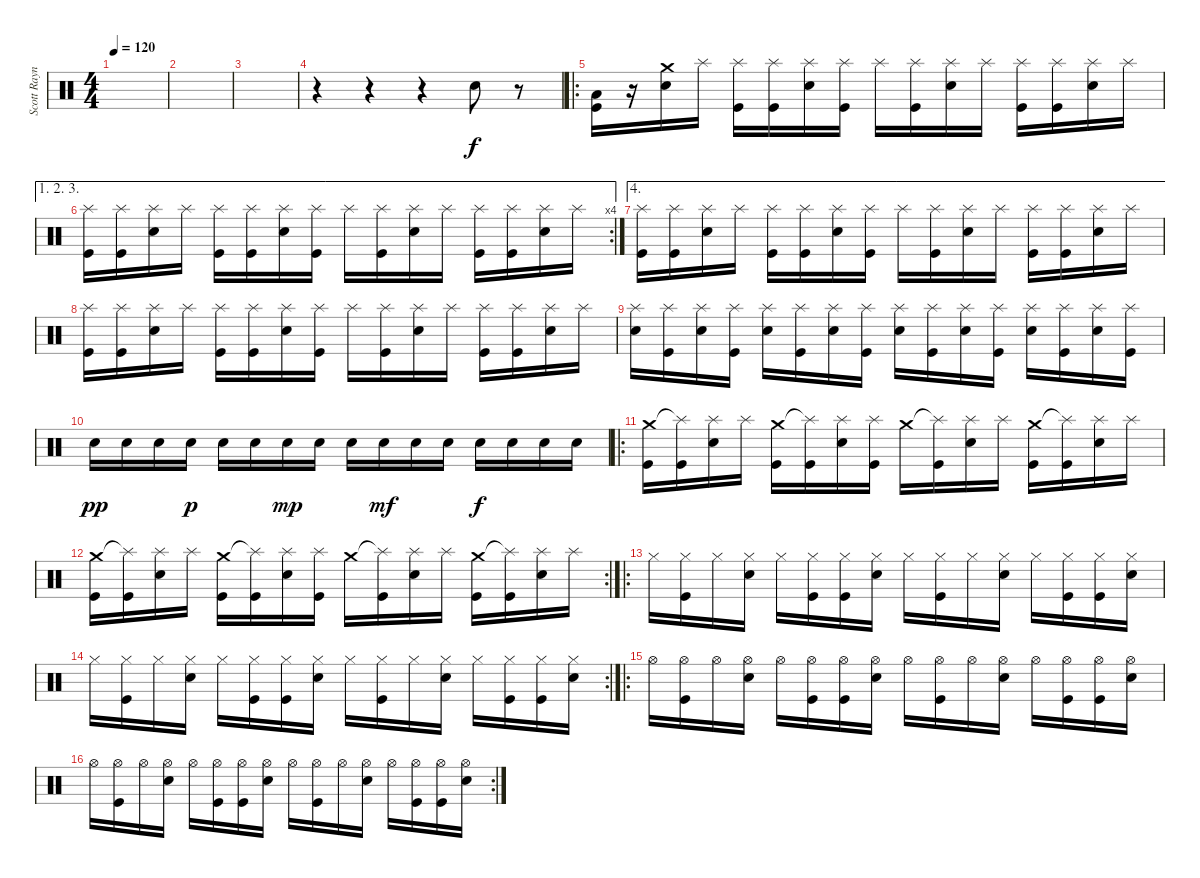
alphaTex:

\track ("Scott Raynor" "Scott Rayn") {instrument percussion}
\staff {score}
\articulation defaults
\ts (4 4)
\tempo 120
\clef neutral
\ks c
|
|
|
r.4 r.4 r.4 "Snare (hit) 2".8 r.8 |
\ro
("Low Tom (hit)" "Kick (hit)").16 r.16 ("Crash medium (hit)" "Snare (hit) 2").16 "Splash (hit)".16 ("Splash (hit)" "Kick (hit)").16 ("Splash (hit)" "Kick (hit)").16 ("Splash (hit)" "Snare (hit) 2").16 ("Splash (hit)" "Kick (hit)").16 "Splash (hit)".16 ("Splash (hit)" "Kick (hit)").16 ("Splash (hit)" "Snare (hit) 2").16 "Splash (hit)".16 ("Splash (hit)" "Kick (hit)").16 ("Splash (hit)" "Kick (hit)").16 ("Splash (hit)" "Snare (hit) 2").16 "Splash (hit)".16 |
\ae (1 2 3)
\rc 4
("Splash (hit)" "Kick (hit)").16 ("Splash (hit)" "Kick (hit)").16 ("Splash (hit)" "Snare (hit) 2").16 "Splash (hit)".16 ("Splash (hit)" "Kick (hit)").16 ("Splash (hit)" "Kick (hit)").16 ("Splash (hit)" "Snare (hit) 2").16 ("Splash (hit)" "Kick (hit)").16 "Splash (hit)".16 ("Splash (hit)" "Kick (hit)").16 ("Splash (hit)" "Snare (hit) 2").16 "Splash (hit)".16 ("Splash (hit)" "Kick (hit)").16 ("Splash (hit)" "Kick (hit)").16 ("Splash (hit)" "Snare (hit) 2").16 "Splash (hit)".16 |
\ae 4
("Splash (hit)" "Kick (hit)").16 ("Splash (hit)" "Kick (hit)").16 ("Splash (hit)" "Snare (hit) 2").16 "Splash (hit)".16 ("Splash (hit)" "Kick (hit)").16 ("Splash (hit)" "Kick (hit)").16 ("Splash (hit)" "Snare (hit) 2").16 ("Splash (hit)" "Kick (hit)").16 "Splash (hit)".16 ("Splash (hit)" "Kick (hit)").16 ("Splash (hit)" "Snare (hit) 2").16 "Splash (hit)".16 ("Splash (hit)" "Kick (hit)").16 ("Splash (hit)" "Kick (hit)").16 ("Splash (hit)" "Snare (hit) 2").16 "Splash (hit)".16 |
("Splash (hit)" "Kick (hit)").16 ("Splash (hit)" "Kick (hit)").16 ("Splash (hit)" "Snare (hit) 2").16 "Splash (hit)".16 ("Splash (hit)" "Kick (hit)").16 ("Splash (hit)" "Kick (hit)").16 ("Splash (hit)" "Snare (hit) 2").16 ("Splash (hit)" "Kick (hit)").16 "Splash (hit)".16 ("Splash (hit)" "Kick (hit)").16 ("Splash (hit)" "Snare (hit) 2").16 "Splash (hit)".16 ("Splash (hit)" "Kick (hit)").16 ("Splash (hit)" "Kick (hit)").16 ("Splash (hit)" "Snare (hit) 2").16 "Splash (hit)".16 |
("Splash (hit)" "Snare (hit) 2").16 ("Splash (hit)" "Kick (hit)").16 ("Splash (hit)" "Snare (hit) 2").16 ("Splash (hit)" "Kick (hit)").16 ("Splash (hit)" "Snare (hit) 2").16 ("Splash (hit)" "Kick (hit)").16 ("Splash (hit)" "Snare (hit) 2").16 ("Splash (hit)" "Kick (hit)").16 ("Splash (hit)" "Snare (hit) 2").16 ("Splash (hit)" "Kick (hit)").16 ("Splash (hit)" "Snare (hit) 2").16 ("Splash (hit)" "Kick (hit)").16 ("Splash (hit)" "Snare (hit) 2").16 ("Splash (hit)" "Kick (hit)").16 ("Splash (hit)" "Snare (hit) 2").16 ("Splash (hit)" "Kick (hit)").16 |
"Snare (hit) 2".16{dy pp} "Snare (hit) 2".16 "Snare (hit) 2".16 "Snare (hit) 2".16{dy p} "Snare (hit) 2".16 "Snare (hit) 2".16 "Snare (hit) 2".16{dy mp} "Snare (hit) 2".16 "Snare (hit) 2".16 "Snare (hit) 2".16{dy mf} "Snare (hit) 2".16 "Snare (hit) 2".16 "Snare (hit) 2".16{dy f} "Snare (hit) 2".16 "Snare (hit) 2".16 "Snare (hit) 2".16 |
\ro
("Crash medium (hit)" "Kick (hit)").16 ("Splash (hit)"{t} "Kick (hit)").16 ("Splash (hit)" "Snare (hit) 2").16 "Splash (hit)".16 ("Crash medium (hit)" "Kick (hit)").16 ("Splash (hit)"{t} "Kick (hit)").16 ("Splash (hit)" "Snare (hit) 2").16 ("Splash (hit)" "Kick (hit)").16 "Crash medium (hit)".16 ("Splash (hit)"{t} "Kick (hit)").16 ("Splash (hit)" "Snare (hit) 2").16 "Splash (hit)".16 ("Crash medium (hit)" "Kick (hit)").16 ("Splash (hit)"{t} "Kick (hit)").16 ("Splash (hit)" "Snare (hit) 2").16 "Splash (hit)".16 |
\rc 2
("Crash medium (hit)" "Kick (hit)").16 ("Splash (hit)"{t} "Kick (hit)").16 ("Splash (hit)" "Snare (hit) 2").16 "Splash (hit)".16 ("Crash medium (hit)" "Kick (hit)").16 ("Splash (hit)"{t} "Kick (hit)").16 ("Splash (hit)" "Snare (hit) 2").16 ("Splash (hit)" "Kick (hit)").16 "Crash medium (hit)".16 ("Splash (hit)"{t} "Kick (hit)").16 ("Splash (hit)" "Snare (hit) 2").16 "Splash (hit)".16 ("Crash medium (hit)" "Kick (hit)").16 ("Splash (hit)"{t} "Kick (hit)").16 ("Splash (hit)" "Snare (hit) 2").16 "Splash (hit)".16 |
\ro "Hi-Hat (closed)".16
("Hi-Hat (closed)" "Kick (hit)").16 "Hi-Hat (closed)".16 ("Hi-Hat (closed)" "Snare (hit) 2").16 "Hi-Hat (closed)".16 ("Hi-Hat (closed)" "Kick (hit)").16 ("Hi-Hat (closed)" "Kick (hit)").16 ("Hi-Hat (closed)" "Snare (hit) 2").16 "Hi-Hat (closed)".16 ("Hi-Hat (closed)" "Kick (hit)").16 "Hi-Hat (closed)".16 ("Hi-Hat (closed)" "Snare (hit) 2").16 "Hi-Hat (closed)".16 ("Hi-Hat (closed)" "Kick (hit)").16 ("Hi-Hat (closed)" "Kick (hit)").16 ("Hi-Hat (closed)" "Snare (hit) 2").16 |
\rc 2 "Hi-Hat (closed)".16
("Hi-Hat (closed)" "Kick (hit)").16 "Hi-Hat (closed)".16 ("Hi-Hat (closed)" "Snare (hit) 2").16 "Hi-Hat (closed)".16 ("Hi-Hat (closed)" "Kick (hit)").16 ("Hi-Hat (closed)" "Kick (hit)").16 ("Hi-Hat (closed)" "Snare (hit) 2").16 "Hi-Hat (closed)".16 ("Hi-Hat (closed)" "Kick (hit)").16 "Hi-Hat (closed)".16 ("Hi-Hat (closed)" "Snare (hit) 2").16 "Hi-Hat (closed)".16 ("Hi-Hat (closed)" "Kick (hit)").16 ("Hi-Hat (closed)" "Kick (hit)").16 ("Hi-Hat (closed)" "Snare (hit) 2").16 |
\ro "Hi-Hat (open)".16
("Hi-Hat (open)" "Kick (hit)").16 "Hi-Hat (open)".16 ("Hi-Hat (open)" "Snare (hit) 2").16 "Hi-Hat (open)".16 ("Hi-Hat (open)" "Kick (hit)").16 ("Hi-Hat (open)" "Kick (hit)").16 ("Hi-Hat (open)" "Snare (hit) 2").16 "Hi-Hat (open)".16 ("Hi-Hat (open)" "Kick (hit)").16 "Hi-Hat (open)".16 ("Hi-Hat (open)" "Snare (hit) 2").16 "Hi-Hat (open)".16 ("Hi-Hat (open)" "Kick (hit)").16 ("Hi-Hat (open)" "Kick (hit)").16 ("Hi-Hat (open)" "Snare (hit) 2").16 |
\rc 2 "Hi-Hat (open)".16
("Hi-Hat (open)" "Kick (hit)").16 "Hi-Hat (open)".16 ("Hi-Hat (open)" "Snare (hit) 2").16 "Hi-Hat (open)".16 ("Hi-Hat (open)" "Kick (hit)").16 ("Hi-Hat (open)" "Kick (hit)").16 ("Hi-Hat (open)" "Snare (hit) 2").16 "Hi-Hat (open)".16 ("Hi-Hat (open)" "Kick (hit)").16 "Hi-Hat (open)".16 ("Hi-Hat (open)" "Snare (hit) 2").16 "Hi-Hat (open)".16 ("Hi-Hat (open)" "Kick (hit)").16 ("Hi-Hat (open)" "Kick (hit)").16 ("Hi-Hat (open)" "Snare (hit) 2").16
